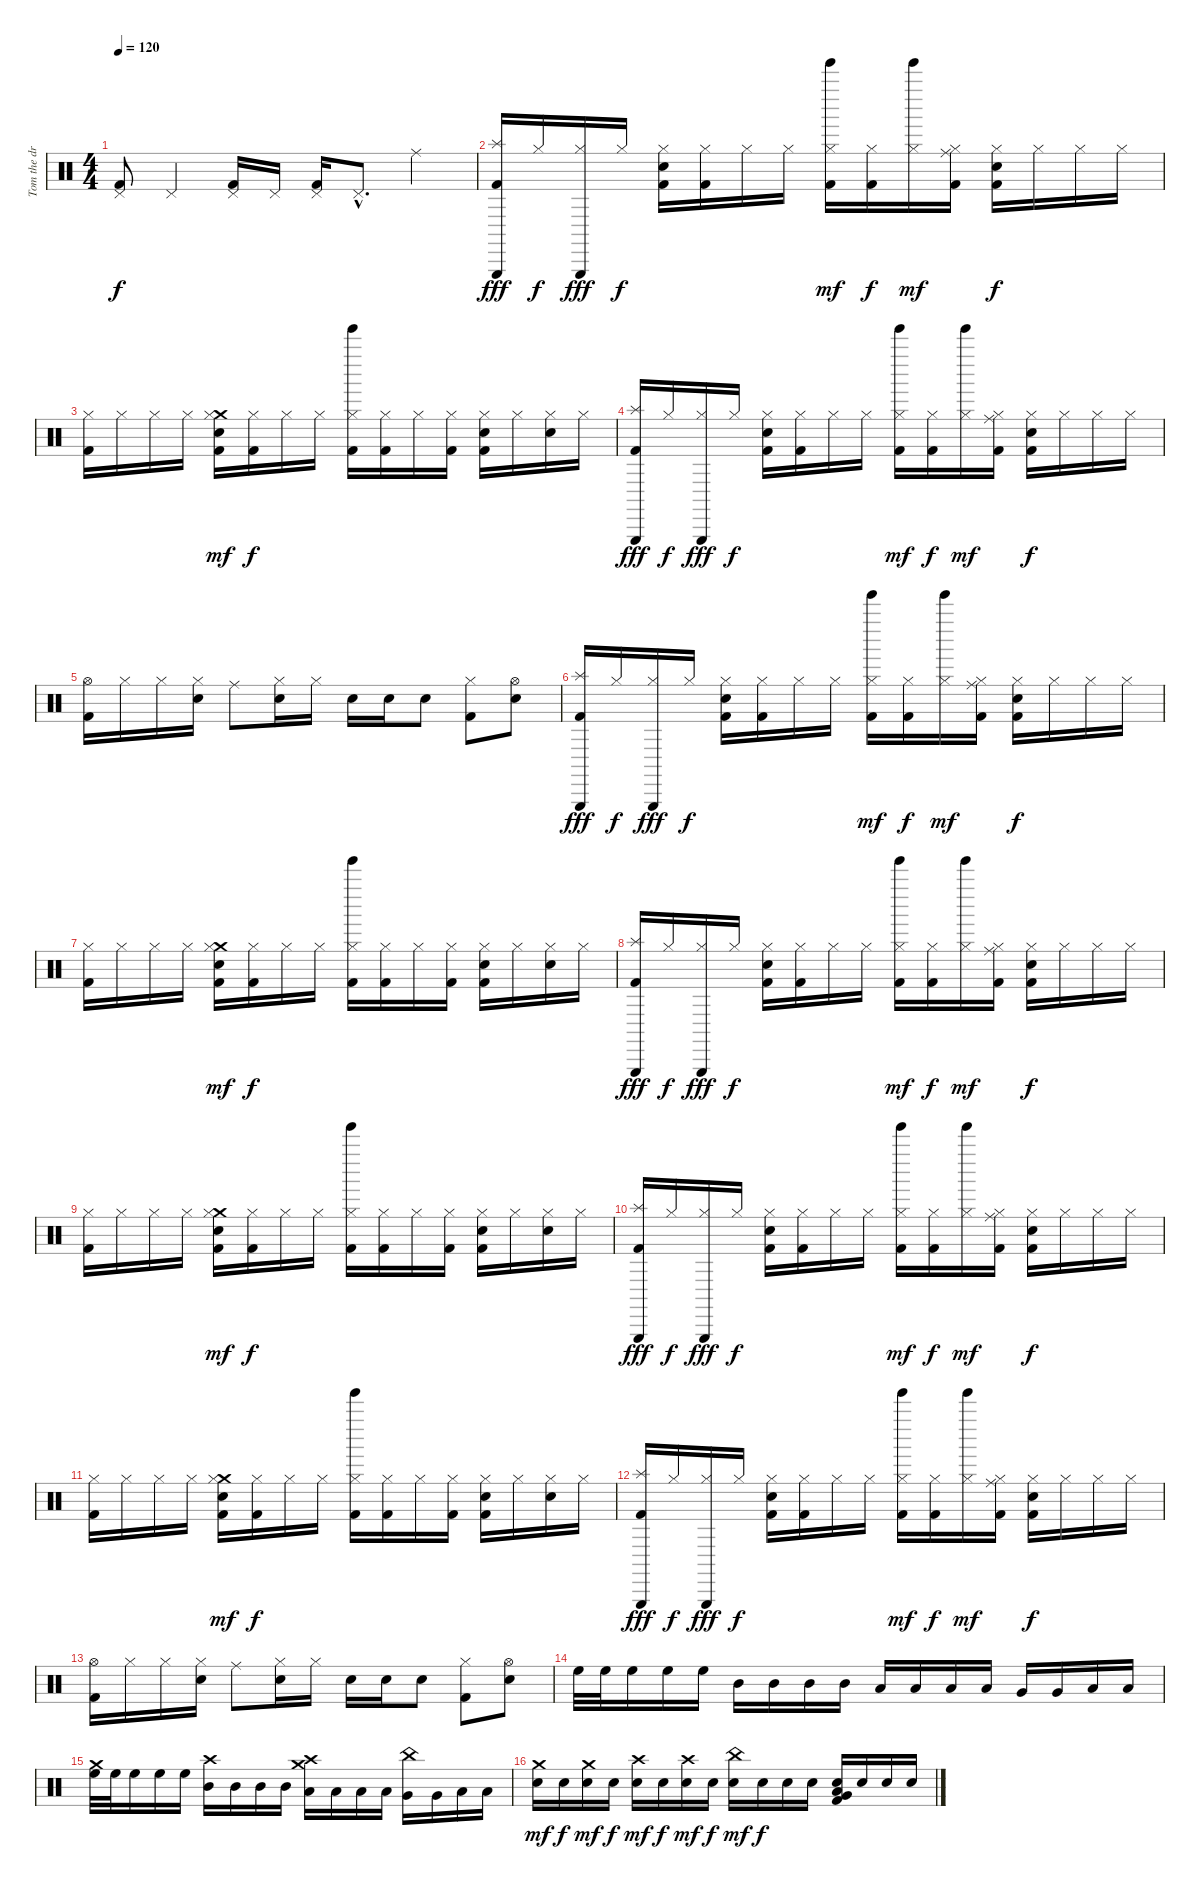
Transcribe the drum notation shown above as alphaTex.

\track ("Tom the drummer" "Tom the dr") {instrument percussion}
\staff {score}
\articulation defaults
\ts (4 4)
\tempo 120
\clef neutral
\ks c
("Pedal Hi-Hat (hit)" "Kick (hit) 2").8{dy f} "Pedal Hi-Hat (hit)".4 ("Pedal Hi-Hat (hit)" "Kick (hit) 2").16 "Pedal Hi-Hat (hit)".16 ("Pedal Hi-Hat (hit)" "Kick (hit) 2").16 "Pedal Hi-Hat (hit)"{hac}.8{d} "Ride (middle)".4 |
("Triangle (hit)" "Splash (hit)" "Kick (hit) 2").16{dy fff} "Hi-Hat (closed)".16{dy f} ("Triangle (hit)" "Hi-Hat (closed)").16{dy fff} "Hi-Hat (closed)".16{dy f} ("Hi-Hat (closed)" "Snare (hit) 2" "Kick (hit) 2").16 ("Hi-Hat (closed)" "Kick (hit) 2").16 "Hi-Hat (closed)".16 "Hi-Hat (closed)".16 ("Tinkle Bell (hit)" "Hi-Hat (closed)" "Kick (hit) 2").16{dy mf} ("Hi-Hat (closed)" "Kick (hit) 2").16{dy f} ("Tinkle Bell (hit)" "Hi-Hat (closed)").16{dy mf} ("Ride (middle)" "Hi-Hat (closed)" "Kick (hit) 2").16 ("Hi-Hat (closed)" "Snare (hit) 2" "Kick (hit) 2").16{dy f} "Hi-Hat (closed)".16 "Hi-Hat (closed)".16 "Hi-Hat (closed)".16 |
("Hi-Hat (closed)" "Kick (hit) 2").16 "Hi-Hat (closed)".16 "Hi-Hat (closed)".16 "Hi-Hat (closed)".16 ("Crash medium (hit)" "Hi-Hat (closed)" "Snare (hit) 2" "Kick (hit) 2").16{dy mf} ("Hi-Hat (closed)" "Kick (hit) 2").16{dy f} "Hi-Hat (closed)".16 "Hi-Hat (closed)".16 ("Tinkle Bell (hit)" "Hi-Hat (closed)" "Kick (hit) 2").16 ("Hi-Hat (closed)" "Kick (hit) 2").16 "Hi-Hat (closed)".16 ("Hi-Hat (closed)" "Kick (hit) 2").16 ("Hi-Hat (closed)" "Snare (hit) 2" "Kick (hit) 2").16 "Hi-Hat (closed)".16 ("Hi-Hat (closed)" "Snare (hit) 2").16 "Hi-Hat (closed)".16 |
("Triangle (hit)" "Splash (hit)" "Kick (hit) 2").16{dy fff} "Hi-Hat (closed)".16{dy f} ("Triangle (hit)" "Hi-Hat (closed)").16{dy fff} "Hi-Hat (closed)".16{dy f} ("Hi-Hat (closed)" "Snare (hit) 2" "Kick (hit) 2").16 ("Hi-Hat (closed)" "Kick (hit) 2").16 "Hi-Hat (closed)".16 "Hi-Hat (closed)".16 ("Tinkle Bell (hit)" "Hi-Hat (closed)" "Kick (hit) 2").16{dy mf} ("Hi-Hat (closed)" "Kick (hit) 2").16{dy f} ("Tinkle Bell (hit)" "Hi-Hat (closed)").16{dy mf} ("Ride (middle)" "Hi-Hat (closed)" "Kick (hit) 2").16 ("Hi-Hat (closed)" "Snare (hit) 2" "Kick (hit) 2").16{dy f} "Hi-Hat (closed)".16 "Hi-Hat (closed)".16 "Hi-Hat (closed)".16 |
("Hi-Hat (open)" "Kick (hit) 2").16 "Hi-Hat (closed)".16 "Hi-Hat (closed)".16 ("Hi-Hat (closed)" "Snare (hit) 2").16 "Ride (middle)".8 ("Hi-Hat (closed)" "Snare (hit) 2").16 "Hi-Hat (closed)".16 "Snare (hit) 2".16 "Snare (hit) 2".16 "Snare (hit) 2".8 ("Hi-Hat (closed)" "Kick (hit) 2").8 ("Hi-Hat (open)" "Snare (hit) 2").8 |
("Triangle (hit)" "Splash (hit)" "Kick (hit) 2").16{dy fff} "Hi-Hat (closed)".16{dy f} ("Triangle (hit)" "Hi-Hat (closed)").16{dy fff} "Hi-Hat (closed)".16{dy f} ("Hi-Hat (closed)" "Snare (hit) 2" "Kick (hit) 2").16 ("Hi-Hat (closed)" "Kick (hit) 2").16 "Hi-Hat (closed)".16 "Hi-Hat (closed)".16 ("Tinkle Bell (hit)" "Hi-Hat (closed)" "Kick (hit) 2").16{dy mf} ("Hi-Hat (closed)" "Kick (hit) 2").16{dy f} ("Tinkle Bell (hit)" "Hi-Hat (closed)").16{dy mf} ("Ride (middle)" "Hi-Hat (closed)" "Kick (hit) 2").16 ("Hi-Hat (closed)" "Snare (hit) 2" "Kick (hit) 2").16{dy f} "Hi-Hat (closed)".16 "Hi-Hat (closed)".16 "Hi-Hat (closed)".16 |
("Hi-Hat (closed)" "Kick (hit) 2").16 "Hi-Hat (closed)".16 "Hi-Hat (closed)".16 "Hi-Hat (closed)".16 ("Crash medium (hit)" "Hi-Hat (closed)" "Snare (hit) 2" "Kick (hit) 2").16{dy mf} ("Hi-Hat (closed)" "Kick (hit) 2").16{dy f} "Hi-Hat (closed)".16 "Hi-Hat (closed)".16 ("Tinkle Bell (hit)" "Hi-Hat (closed)" "Kick (hit) 2").16 ("Hi-Hat (closed)" "Kick (hit) 2").16 "Hi-Hat (closed)".16 ("Hi-Hat (closed)" "Kick (hit) 2").16 ("Hi-Hat (closed)" "Snare (hit) 2" "Kick (hit) 2").16 "Hi-Hat (closed)".16 ("Hi-Hat (closed)" "Snare (hit) 2").16 "Hi-Hat (closed)".16 |
("Triangle (hit)" "Splash (hit)" "Kick (hit) 2").16{dy fff} "Hi-Hat (closed)".16{dy f} ("Triangle (hit)" "Hi-Hat (closed)").16{dy fff} "Hi-Hat (closed)".16{dy f} ("Hi-Hat (closed)" "Snare (hit) 2" "Kick (hit) 2").16 ("Hi-Hat (closed)" "Kick (hit) 2").16 "Hi-Hat (closed)".16 "Hi-Hat (closed)".16 ("Tinkle Bell (hit)" "Hi-Hat (closed)" "Kick (hit) 2").16{dy mf} ("Hi-Hat (closed)" "Kick (hit) 2").16{dy f} ("Tinkle Bell (hit)" "Hi-Hat (closed)").16{dy mf} ("Ride (middle)" "Hi-Hat (closed)" "Kick (hit) 2").16 ("Hi-Hat (closed)" "Snare (hit) 2" "Kick (hit) 2").16{dy f} "Hi-Hat (closed)".16 "Hi-Hat (closed)".16 "Hi-Hat (closed)".16 |
("Hi-Hat (closed)" "Kick (hit) 2").16 "Hi-Hat (closed)".16 "Hi-Hat (closed)".16 "Hi-Hat (closed)".16 ("Crash medium (hit)" "Hi-Hat (closed)" "Snare (hit) 2" "Kick (hit) 2").16{dy mf} ("Hi-Hat (closed)" "Kick (hit) 2").16{dy f} "Hi-Hat (closed)".16 "Hi-Hat (closed)".16 ("Tinkle Bell (hit)" "Hi-Hat (closed)" "Kick (hit) 2").16 ("Hi-Hat (closed)" "Kick (hit) 2").16 "Hi-Hat (closed)".16 ("Hi-Hat (closed)" "Kick (hit) 2").16 ("Hi-Hat (closed)" "Snare (hit) 2" "Kick (hit) 2").16 "Hi-Hat (closed)".16 ("Hi-Hat (closed)" "Snare (hit) 2").16 "Hi-Hat (closed)".16 |
("Triangle (hit)" "Splash (hit)" "Kick (hit) 2").16{dy fff} "Hi-Hat (closed)".16{dy f} ("Triangle (hit)" "Hi-Hat (closed)").16{dy fff} "Hi-Hat (closed)".16{dy f} ("Hi-Hat (closed)" "Snare (hit) 2" "Kick (hit) 2").16 ("Hi-Hat (closed)" "Kick (hit) 2").16 "Hi-Hat (closed)".16 "Hi-Hat (closed)".16 ("Tinkle Bell (hit)" "Hi-Hat (closed)" "Kick (hit) 2").16{dy mf} ("Hi-Hat (closed)" "Kick (hit) 2").16{dy f} ("Tinkle Bell (hit)" "Hi-Hat (closed)").16{dy mf} ("Ride (middle)" "Hi-Hat (closed)" "Kick (hit) 2").16 ("Hi-Hat (closed)" "Snare (hit) 2" "Kick (hit) 2").16{dy f} "Hi-Hat (closed)".16 "Hi-Hat (closed)".16 "Hi-Hat (closed)".16 |
("Hi-Hat (closed)" "Kick (hit) 2").16 "Hi-Hat (closed)".16 "Hi-Hat (closed)".16 "Hi-Hat (closed)".16 ("Crash medium (hit)" "Hi-Hat (closed)" "Snare (hit) 2" "Kick (hit) 2").16{dy mf} ("Hi-Hat (closed)" "Kick (hit) 2").16{dy f} "Hi-Hat (closed)".16 "Hi-Hat (closed)".16 ("Tinkle Bell (hit)" "Hi-Hat (closed)" "Kick (hit) 2").16 ("Hi-Hat (closed)" "Kick (hit) 2").16 "Hi-Hat (closed)".16 ("Hi-Hat (closed)" "Kick (hit) 2").16 ("Hi-Hat (closed)" "Snare (hit) 2" "Kick (hit) 2").16 "Hi-Hat (closed)".16 ("Hi-Hat (closed)" "Snare (hit) 2").16 "Hi-Hat (closed)".16 |
("Triangle (hit)" "Splash (hit)" "Kick (hit) 2").16{dy fff} "Hi-Hat (closed)".16{dy f} ("Triangle (hit)" "Hi-Hat (closed)").16{dy fff} "Hi-Hat (closed)".16{dy f} ("Hi-Hat (closed)" "Snare (hit) 2" "Kick (hit) 2").16 ("Hi-Hat (closed)" "Kick (hit) 2").16 "Hi-Hat (closed)".16 "Hi-Hat (closed)".16 ("Tinkle Bell (hit)" "Hi-Hat (closed)" "Kick (hit) 2").16{dy mf} ("Hi-Hat (closed)" "Kick (hit) 2").16{dy f} ("Tinkle Bell (hit)" "Hi-Hat (closed)").16{dy mf} ("Ride (middle)" "Hi-Hat (closed)" "Kick (hit) 2").16 ("Hi-Hat (closed)" "Snare (hit) 2" "Kick (hit) 2").16{dy f} "Hi-Hat (closed)".16 "Hi-Hat (closed)".16 "Hi-Hat (closed)".16 |
("Hi-Hat (open)" "Kick (hit) 2").16 "Hi-Hat (closed)".16 "Hi-Hat (closed)".16 ("Hi-Hat (closed)" "Snare (hit) 2").16 "Ride (middle)".8 ("Hi-Hat (closed)" "Snare (hit) 2").16 "Hi-Hat (closed)".16 "Snare (hit) 2".16 "Snare (hit) 2".16 "Snare (hit) 2".8 ("Hi-Hat (closed)" "Kick (hit) 2").8 ("Hi-Hat (open)" "Snare (hit) 2").8 |
"High Floor Tom (hit)".32 "High Floor Tom (hit)".32 "High Floor Tom (hit)".16 "High Floor Tom (hit)".16 "High Floor Tom (hit)".16 "Mid Tom (hit)".16 "Mid Tom (hit)".16 "Mid Tom (hit)".16 "Mid Tom (hit)".16 "Low Tom (hit)".16 "Low Tom (hit)".16 "Low Tom (hit)".16 "Low Tom (hit)".16 "Very Low Tom (hit)".16 "Very Low Tom (hit)".16 "Low Floor Tom (hit)".16 "Low Floor Tom (hit)".16 |
("Crash medium (hit)" "High Floor Tom (hit)").32 "High Floor Tom (hit)".32 "High Floor Tom (hit)".16 "High Floor Tom (hit)".16 "High Floor Tom (hit)".16 ("Crash high (hit)" "Mid Tom (hit)").16 "Mid Tom (hit)".16 "Mid Tom (hit)".16 "Mid Tom (hit)".16 ("Crash high (hit)" "Crash medium (hit)" "Low Tom (hit)").16 "Low Tom (hit)".16 "Low Tom (hit)".16 "Low Tom (hit)".16 ("China (hit)" "Very Low Tom (hit)").16 "Very Low Tom (hit)".16 "Low Floor Tom (hit)".16 "Low Floor Tom (hit)".16 |
("Crash medium (hit)" "Snare (hit) 2").16{dy mf} "Snare (hit) 2".16{dy f} ("Crash medium (hit)" "Snare (hit) 2").16{dy mf} "Snare (hit) 2".16{dy f} ("Crash high (hit)" "Snare (hit) 2").16{dy mf} "Snare (hit) 2".16{dy f} ("Crash high (hit)" "Snare (hit) 2").16{dy mf} "Snare (hit) 2".16{dy f} ("China (hit)" "Snare (hit) 2").16{dy mf} "Snare (hit) 2".16{dy f} "Snare (hit) 2".16 "Snare (hit) 2".16 ("Very Low Tom (hit)" "Low Tom (hit)" "Snare (hit) 2" "Kick (hit) 2").16 "Snare (hit) 2".16 "Snare (hit) 2".16 "Snare (hit) 2".16
